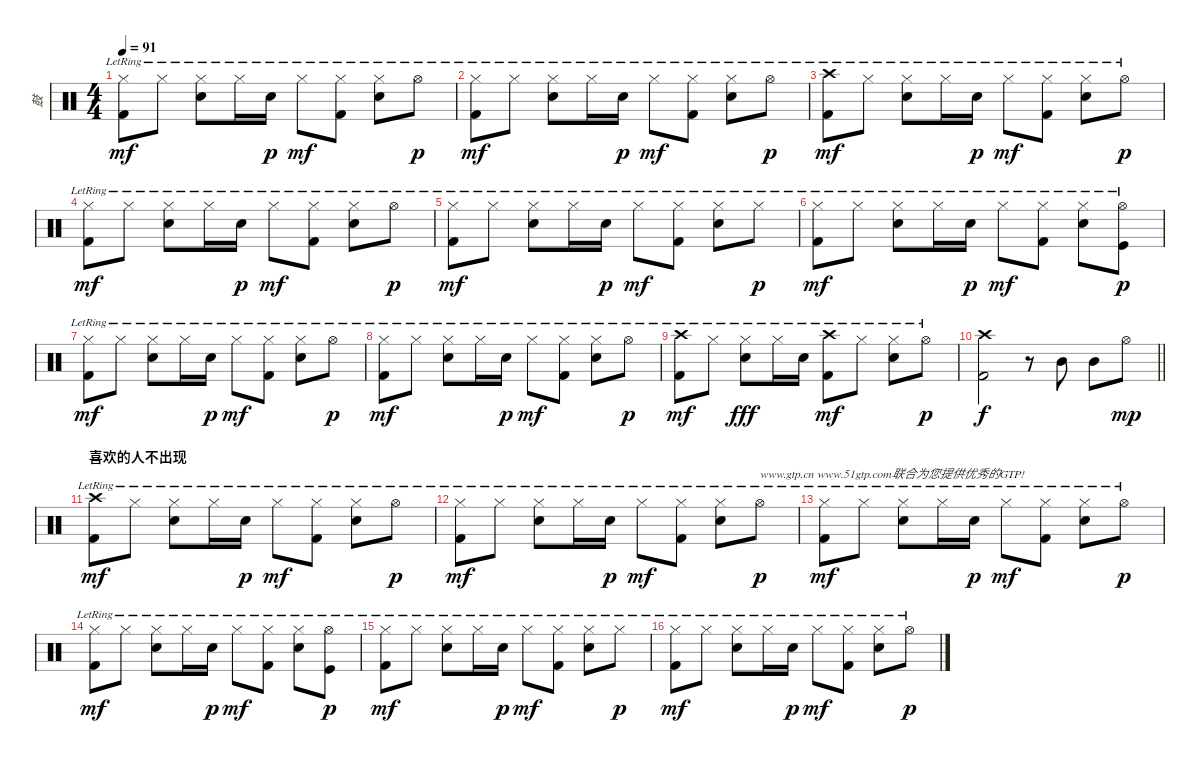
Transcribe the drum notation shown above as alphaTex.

\track ("鼓" "鼓") {instrument percussion}
\staff {score}
\articulation defaults
\ts (4 4)
\tempo 91
\clef neutral
\ks c
("Hi-Hat (closed)"{lr} "Kick (hit) 2"{lr}).8{dy mf} "Hi-Hat (closed)"{lr}.8 ("Hi-Hat (closed)"{lr} "Electric Snare (hit)"{lr}).8 "Hi-Hat (closed)"{lr}.16 "Electric Snare (hit)"{lr}.16{dy p} "Hi-Hat (closed)"{lr}.8{dy mf} ("Hi-Hat (closed)"{lr} "Kick (hit) 2"{lr}).8 ("Hi-Hat (closed)"{lr} "Electric Snare (hit)"{lr}).8 "Hi-Hat (open)"{lr}.8{dy p} |
("Hi-Hat (closed)"{lr} "Kick (hit) 2"{lr}).8{dy mf} "Hi-Hat (closed)"{lr}.8 ("Hi-Hat (closed)"{lr} "Electric Snare (hit)"{lr}).8 "Hi-Hat (closed)"{lr}.16 "Electric Snare (hit)"{lr}.16{dy p} "Hi-Hat (closed)"{lr}.8{dy mf} ("Hi-Hat (closed)"{lr} "Kick (hit) 2"{lr}).8 ("Hi-Hat (closed)"{lr} "Electric Snare (hit)"{lr}).8 "Hi-Hat (open)"{lr}.8{dy p} |
("Crash high (hit)"{lr} "Kick (hit) 2"{lr}).8{dy mf} "Hi-Hat (closed)"{lr}.8 ("Hi-Hat (closed)"{lr} "Electric Snare (hit)"{lr}).8 "Hi-Hat (closed)"{lr}.16 "Electric Snare (hit)"{lr}.16{dy p} "Hi-Hat (closed)"{lr}.8{dy mf} ("Hi-Hat (closed)"{lr} "Kick (hit) 2"{lr}).8 ("Hi-Hat (closed)"{lr} "Electric Snare (hit)"{lr}).8 "Hi-Hat (open)"{lr}.8{dy p} |
("Hi-Hat (closed)"{lr} "Kick (hit) 2"{lr}).8{dy mf} "Hi-Hat (closed)"{lr}.8 ("Hi-Hat (closed)"{lr} "Electric Snare (hit)"{lr}).8 "Hi-Hat (closed)"{lr}.16 "Electric Snare (hit)"{lr}.16{dy p} "Hi-Hat (closed)"{lr}.8{dy mf} ("Hi-Hat (closed)"{lr} "Kick (hit) 2"{lr}).8 ("Hi-Hat (closed)"{lr} "Electric Snare (hit)"{lr}).8 "Hi-Hat (open)"{lr}.8{dy p} |
("Hi-Hat (closed)"{lr} "Kick (hit) 2"{lr}).8{dy mf} "Hi-Hat (closed)"{lr}.8 ("Hi-Hat (closed)"{lr} "Electric Snare (hit)"{lr}).8 "Hi-Hat (closed)"{lr}.16 "Electric Snare (hit)"{lr}.16{dy p} "Hi-Hat (closed)"{lr}.8{dy mf} ("Hi-Hat (closed)"{lr} "Kick (hit) 2"{lr}).8 ("Hi-Hat (closed)"{lr} "Electric Snare (hit)"{lr}).8 "Hi-Hat (closed)"{lr}.8{dy p} |
("Hi-Hat (closed)"{lr} "Kick (hit) 2"{lr}).8{dy mf} "Hi-Hat (closed)"{lr}.8 ("Hi-Hat (closed)"{lr} "Electric Snare (hit)"{lr}).8 "Hi-Hat (closed)"{lr}.16 "Electric Snare (hit)"{lr}.16{dy p} "Hi-Hat (closed)"{lr}.8{dy mf} ("Hi-Hat (closed)"{lr} "Kick (hit) 2"{lr}).8 ("Hi-Hat (closed)"{lr} "Electric Snare (hit)"{lr}).8 ("Hi-Hat (open)"{lr} "Kick (hit)").8{dy p} |
("Hi-Hat (closed)"{lr} "Kick (hit) 2"{lr}).8{dy mf} "Hi-Hat (closed)"{lr}.8 ("Hi-Hat (closed)"{lr} "Electric Snare (hit)"{lr}).8 "Hi-Hat (closed)"{lr}.16 "Electric Snare (hit)"{lr}.16{dy p} "Hi-Hat (closed)"{lr}.8{dy mf} ("Hi-Hat (closed)"{lr} "Kick (hit) 2"{lr}).8 ("Hi-Hat (closed)"{lr} "Electric Snare (hit)"{lr}).8 "Hi-Hat (open)"{lr}.8{dy p} |
("Hi-Hat (closed)"{lr} "Kick (hit) 2"{lr}).8{dy mf} "Hi-Hat (closed)"{lr}.8 ("Hi-Hat (closed)"{lr} "Electric Snare (hit)"{lr}).8 "Hi-Hat (closed)"{lr}.16 "Electric Snare (hit)"{lr}.16{dy p} "Hi-Hat (closed)"{lr}.8{dy mf} ("Hi-Hat (closed)"{lr} "Kick (hit) 2"{lr}).8 ("Hi-Hat (closed)"{lr} "Electric Snare (hit)"{lr}).8 "Hi-Hat (open)"{lr}.8{dy p} |
("Crash high (hit)"{lr} "Kick (hit) 2"{lr}).8{dy mf} "Hi-Hat (closed)"{lr}.8 ("Hi-Hat (closed)"{lr} "Electric Snare (hit)"{lr}).8{dy fff} "Hi-Hat (closed)"{lr}.16 "Electric Snare (hit)"{lr}.16 ("Crash high (hit)"{lr} "Kick (hit) 2").8{dy mf} "Hi-Hat (closed)"{lr}.8 ("Hi-Hat (closed)"{lr} "Electric Snare (hit)"{lr}).8 "Hi-Hat (open)"{lr}.8{dy p} |
\barLineRight lightlight
("Crash high (hit)" "Kick (hit) 2").2{dy f} r.8 "Mid Tom (hit)".8 "Mid Tom (hit)".8 "Hi-Hat (open)".8{dy mp} |
\section ("" "喜欢的人不出现")
("Crash high (hit)"{lr} "Kick (hit) 2"{lr}).8{dy mf} "Hi-Hat (closed)"{lr}.8 ("Hi-Hat (closed)"{lr} "Electric Snare (hit)"{lr}).8 "Hi-Hat (closed)"{lr}.16 "Electric Snare (hit)"{lr}.16{dy p} "Hi-Hat (closed)"{lr}.8{dy mf} ("Hi-Hat (closed)"{lr} "Kick (hit) 2"{lr}).8 ("Hi-Hat (closed)"{lr} "Electric Snare (hit)"{lr}).8 "Hi-Hat (open)"{lr}.8{dy p} |
("Hi-Hat (closed)"{lr} "Kick (hit) 2"{lr}).8{dy mf} "Hi-Hat (closed)"{lr}.8 ("Hi-Hat (closed)"{lr} "Electric Snare (hit)"{lr}).8 "Hi-Hat (closed)"{lr}.16 "Electric Snare (hit)"{lr}.16{dy p} "Hi-Hat (closed)"{lr}.8{dy mf} ("Hi-Hat (closed)"{lr} "Kick (hit) 2"{lr}).8 ("Hi-Hat (closed)"{lr} "Electric Snare (hit)"{lr}).8 "Hi-Hat (open)"{lr}.8{txt "www.gtp.cn www.51gtp.com联合为您提供优秀的GTP!" dy p} |
("Hi-Hat (closed)"{lr} "Kick (hit) 2"{lr}).8{dy mf} "Hi-Hat (closed)"{lr}.8 ("Hi-Hat (closed)"{lr} "Electric Snare (hit)"{lr}).8 "Hi-Hat (closed)"{lr}.16 "Electric Snare (hit)"{lr}.16{dy p} "Hi-Hat (closed)"{lr}.8{dy mf} ("Hi-Hat (closed)"{lr} "Kick (hit) 2"{lr}).8 ("Hi-Hat (closed)"{lr} "Electric Snare (hit)"{lr}).8 "Hi-Hat (open)"{lr}.8{dy p} |
("Hi-Hat (closed)"{lr} "Kick (hit) 2"{lr}).8{dy mf} "Hi-Hat (closed)"{lr}.8 ("Hi-Hat (closed)"{lr} "Electric Snare (hit)"{lr}).8 "Hi-Hat (closed)"{lr}.16 "Electric Snare (hit)"{lr}.16{dy p} "Hi-Hat (closed)"{lr}.8{dy mf} ("Hi-Hat (closed)"{lr} "Kick (hit) 2"{lr}).8 ("Hi-Hat (closed)"{lr} "Electric Snare (hit)"{lr}).8 ("Hi-Hat (open)"{lr} "Kick (hit)").8{dy p} |
("Hi-Hat (closed)"{lr} "Kick (hit) 2"{lr}).8{dy mf} "Hi-Hat (closed)"{lr}.8 ("Hi-Hat (closed)"{lr} "Electric Snare (hit)"{lr}).8 "Hi-Hat (closed)"{lr}.16 "Electric Snare (hit)"{lr}.16{dy p} "Hi-Hat (closed)"{lr}.8{dy mf} ("Hi-Hat (closed)"{lr} "Kick (hit) 2"{lr}).8 ("Hi-Hat (closed)"{lr} "Electric Snare (hit)"{lr}).8 "Hi-Hat (closed)"{lr}.8{dy p} |
("Hi-Hat (closed)"{lr} "Kick (hit) 2"{lr}).8{dy mf} "Hi-Hat (closed)"{lr}.8 ("Hi-Hat (closed)"{lr} "Electric Snare (hit)"{lr}).8 "Hi-Hat (closed)"{lr}.16 "Electric Snare (hit)"{lr}.16{dy p} "Hi-Hat (closed)"{lr}.8{dy mf} ("Hi-Hat (closed)"{lr} "Kick (hit) 2"{lr}).8 ("Hi-Hat (closed)"{lr} "Electric Snare (hit)"{lr}).8 "Hi-Hat (open)"{lr}.8{dy p}
